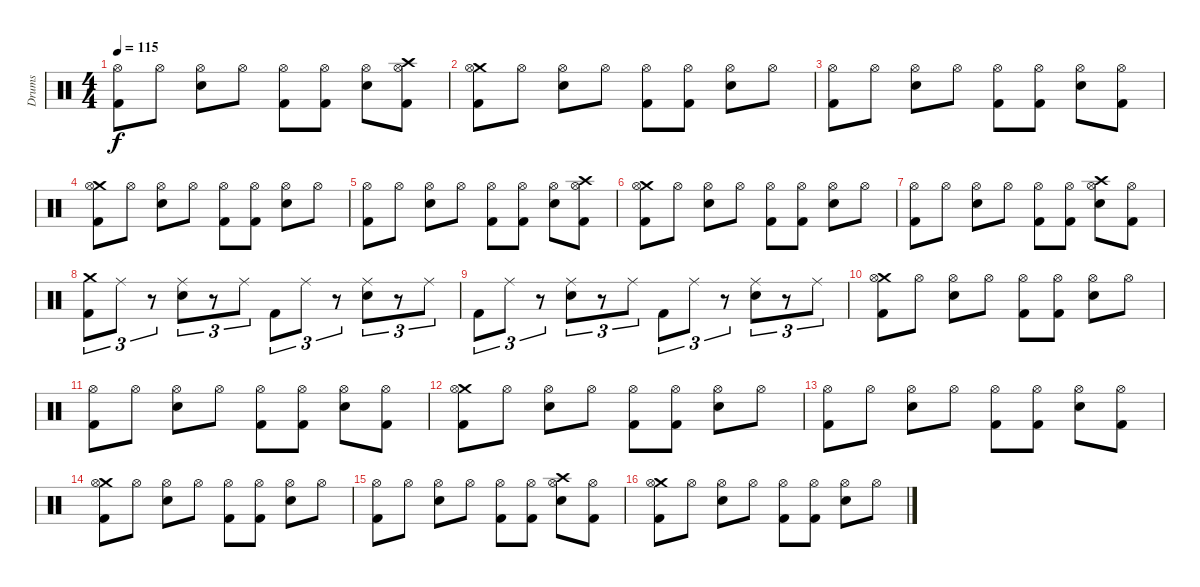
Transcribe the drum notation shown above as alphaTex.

\track ("Drums" "Drums") {instrument percussion}
\staff {score}
\articulation defaults
\ts (4 4)
\tempo 115
\clef neutral
\ks c
("Hi-Hat (open)" "Kick (hit) 2").8{dy f} "Hi-Hat (open)".8 ("Hi-Hat (open)" "Snare (hit) 2").8 "Hi-Hat (open)".8 ("Hi-Hat (open)" "Kick (hit) 2").8 ("Hi-Hat (open)" "Kick (hit) 2").8 ("Hi-Hat (open)" "Snare (hit) 2").8 ("Crash high (hit)" "Hi-Hat (open)" "Kick (hit) 2").8 |
("Crash medium (hit)" "Hi-Hat (open)" "Kick (hit) 2").8 "Hi-Hat (open)".8 ("Hi-Hat (open)" "Snare (hit) 2").8 "Hi-Hat (open)".8 ("Hi-Hat (open)" "Kick (hit) 2").8 ("Hi-Hat (open)" "Kick (hit) 2").8 ("Hi-Hat (open)" "Snare (hit) 2").8 "Hi-Hat (open)".8 |
("Hi-Hat (open)" "Kick (hit) 2").8 "Hi-Hat (open)".8 ("Hi-Hat (open)" "Snare (hit) 2").8 "Hi-Hat (open)".8 ("Hi-Hat (open)" "Kick (hit) 2").8 ("Hi-Hat (open)" "Kick (hit) 2").8 ("Hi-Hat (open)" "Snare (hit) 2").8 ("Hi-Hat (open)" "Kick (hit) 2").8 |
("Crash medium (hit)" "Hi-Hat (open)" "Kick (hit) 2").8 "Hi-Hat (open)".8 ("Hi-Hat (open)" "Snare (hit) 2").8 "Hi-Hat (open)".8 ("Hi-Hat (open)" "Kick (hit) 2").8 ("Hi-Hat (open)" "Kick (hit) 2").8 ("Hi-Hat (open)" "Snare (hit) 2").8 "Hi-Hat (open)".8 |
("Hi-Hat (open)" "Kick (hit) 2").8 "Hi-Hat (open)".8 ("Hi-Hat (open)" "Snare (hit) 2").8 "Hi-Hat (open)".8 ("Hi-Hat (open)" "Kick (hit) 2").8 ("Hi-Hat (open)" "Kick (hit) 2").8 ("Hi-Hat (open)" "Snare (hit) 2").8 ("Crash high (hit)" "Hi-Hat (open)" "Kick (hit) 2").8 |
("Crash medium (hit)" "Hi-Hat (open)" "Kick (hit) 2").8 "Hi-Hat (open)".8 ("Hi-Hat (open)" "Snare (hit) 2").8 "Hi-Hat (open)".8 ("Hi-Hat (open)" "Kick (hit) 2").8 ("Hi-Hat (open)" "Kick (hit) 2").8 ("Hi-Hat (open)" "Snare (hit) 2").8 "Hi-Hat (open)".8 |
("Hi-Hat (open)" "Kick (hit) 2").8 "Hi-Hat (open)".8 ("Hi-Hat (open)" "Snare (hit) 2").8 "Hi-Hat (open)".8 ("Hi-Hat (open)" "Kick (hit) 2").8 ("Hi-Hat (open)" "Kick (hit) 2").8 ("Crash high (hit)" "Hi-Hat (open)" "Snare (hit) 2").8 ("Hi-Hat (open)" "Kick (hit) 2").8 |
("Crash medium (hit)" "Kick (hit) 2").8{tu (3 2)} "Ride (middle)".8{tu (3 2)} r.8{tu (3 2)} ("Ride (middle)" "Snare (hit) 2").8{tu (3 2)} r.8{tu (3 2)} "Ride (middle)".8{tu (3 2)} "Kick (hit) 2".8{tu (3 2)} "Ride (middle)".8{tu (3 2)} r.8{tu (3 2)} ("Ride (middle)" "Snare (hit) 2").8{tu (3 2)} r.8{tu (3 2)} "Ride (middle)".8{tu (3 2)} |
"Kick (hit) 2".8{tu (3 2)} "Ride (middle)".8{tu (3 2)} r.8{tu (3 2)} ("Ride (middle)" "Snare (hit) 2").8{tu (3 2)} r.8{tu (3 2)} "Ride (middle)".8{tu (3 2)} "Kick (hit) 2".8{tu (3 2)} "Ride (middle)".8{tu (3 2)} r.8{tu (3 2)} ("Ride (middle)" "Snare (hit) 2").8{tu (3 2)} r.8{tu (3 2)} "Ride (middle)".8{tu (3 2)} |
("Crash medium (hit)" "Hi-Hat (open)" "Kick (hit) 2").8 "Hi-Hat (open)".8 ("Hi-Hat (open)" "Snare (hit) 2").8 "Hi-Hat (open)".8 ("Hi-Hat (open)" "Kick (hit) 2").8 ("Hi-Hat (open)" "Kick (hit) 2").8 ("Hi-Hat (open)" "Snare (hit) 2").8 "Hi-Hat (open)".8 |
("Hi-Hat (open)" "Kick (hit) 2").8 "Hi-Hat (open)".8 ("Hi-Hat (open)" "Snare (hit) 2").8 "Hi-Hat (open)".8 ("Hi-Hat (open)" "Kick (hit) 2").8 ("Hi-Hat (open)" "Kick (hit) 2").8 ("Hi-Hat (open)" "Snare (hit) 2").8 ("Hi-Hat (open)" "Kick (hit) 2").8 |
("Crash medium (hit)" "Hi-Hat (open)" "Kick (hit) 2").8 "Hi-Hat (open)".8 ("Hi-Hat (open)" "Snare (hit) 2").8 "Hi-Hat (open)".8 ("Hi-Hat (open)" "Kick (hit) 2").8 ("Hi-Hat (open)" "Kick (hit) 2").8 ("Hi-Hat (open)" "Snare (hit) 2").8 "Hi-Hat (open)".8 |
("Hi-Hat (open)" "Kick (hit) 2").8 "Hi-Hat (open)".8 ("Hi-Hat (open)" "Snare (hit) 2").8 "Hi-Hat (open)".8 ("Hi-Hat (open)" "Kick (hit) 2").8 ("Hi-Hat (open)" "Kick (hit) 2").8 ("Hi-Hat (open)" "Snare (hit) 2").8 ("Hi-Hat (open)" "Kick (hit) 2").8 |
("Crash medium (hit)" "Hi-Hat (open)" "Kick (hit) 2").8 "Hi-Hat (open)".8 ("Hi-Hat (open)" "Snare (hit) 2").8 "Hi-Hat (open)".8 ("Hi-Hat (open)" "Kick (hit) 2").8 ("Hi-Hat (open)" "Kick (hit) 2").8 ("Hi-Hat (open)" "Snare (hit) 2").8 "Hi-Hat (open)".8 |
("Hi-Hat (open)" "Kick (hit) 2").8 "Hi-Hat (open)".8 ("Hi-Hat (open)" "Snare (hit) 2").8 "Hi-Hat (open)".8 ("Hi-Hat (open)" "Kick (hit) 2").8 ("Hi-Hat (open)" "Kick (hit) 2").8 ("Crash high (hit)" "Hi-Hat (open)" "Snare (hit) 2").8 ("Hi-Hat (open)" "Kick (hit) 2").8 |
("Crash medium (hit)" "Hi-Hat (open)" "Kick (hit) 2").8 "Hi-Hat (open)".8 ("Hi-Hat (open)" "Snare (hit) 2").8 "Hi-Hat (open)".8 ("Hi-Hat (open)" "Kick (hit) 2").8 ("Hi-Hat (open)" "Kick (hit) 2").8 ("Hi-Hat (open)" "Snare (hit) 2").8 "Hi-Hat (open)".8
